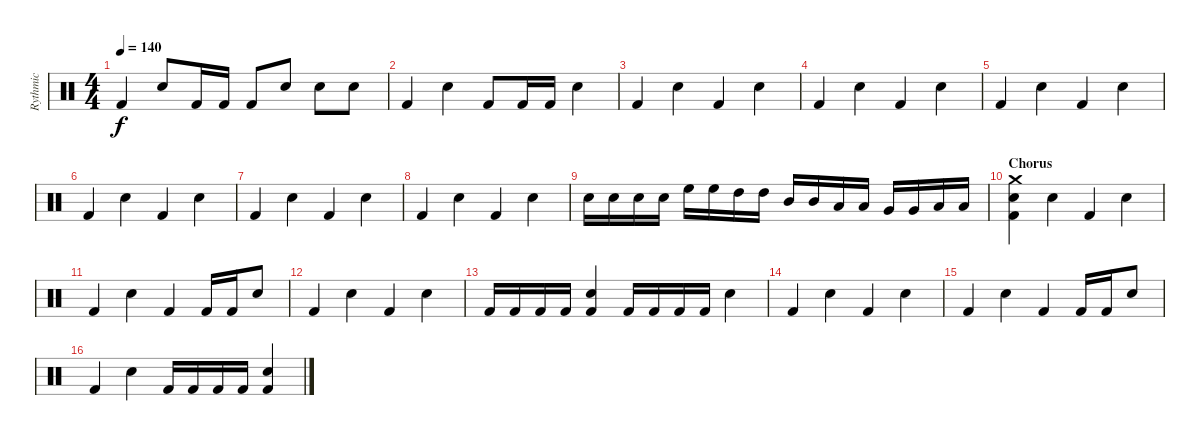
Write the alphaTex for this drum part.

\track ("Rythmic" "Rythmic") {instrument percussion}
\staff {score}
\articulation defaults
\ts (4 4)
\tempo 140
\clef neutral
\ks c "Kick (hit) 2".4{dy f} "Snare (hit) 2".8 "Kick (hit) 2".16 "Kick (hit) 2".16 "Kick (hit) 2".8 "Snare (hit) 2".8 "Snare (hit) 2".8 "Snare (hit) 2".8
|
"Kick (hit) 2".4 "Snare (hit) 2".4 "Kick (hit) 2".8 "Kick (hit) 2".16 "Kick (hit) 2".16 "Snare (hit) 2".4 |
"Kick (hit) 2".4 "Snare (hit) 2".4 "Kick (hit) 2".4 "Snare (hit) 2".4 |
"Kick (hit) 2".4 "Snare (hit) 2".4 "Kick (hit) 2".4 "Snare (hit) 2".4 |
"Kick (hit) 2".4 "Snare (hit) 2".4 "Kick (hit) 2".4 "Snare (hit) 2".4 |
"Kick (hit) 2".4 "Snare (hit) 2".4 "Kick (hit) 2".4 "Snare (hit) 2".4 |
"Kick (hit) 2".4 "Snare (hit) 2".4 "Kick (hit) 2".4 "Snare (hit) 2".4 |
"Kick (hit) 2".4 "Snare (hit) 2".4 "Kick (hit) 2".4 "Snare (hit) 2".4 |
"Snare (hit) 2".16 "Snare (hit) 2".16 "Snare (hit) 2".16 "Snare (hit) 2".16 "High Floor Tom (hit)".16 "High Floor Tom (hit)".16 "High Tom (hit)".16 "High Tom (hit)".16 "Mid Tom (hit)".16 "Mid Tom (hit)".16 "Low Tom (hit)".16 "Low Tom (hit)".16 "Very Low Tom (hit)".16 "Very Low Tom (hit)".16 "Low Floor Tom (hit)".16 "Low Floor Tom (hit)".16 |
\section ("" "Chorus")
("Crash medium (hit)" "Snare (hit) 2" "Kick (hit) 2").4 "Snare (hit) 2".4 "Kick (hit) 2".4 "Snare (hit) 2".4 |
"Kick (hit) 2".4 "Snare (hit) 2".4 "Kick (hit) 2".4 "Kick (hit) 2".16 "Kick (hit) 2".16 "Snare (hit) 2".8 |
"Kick (hit) 2".4 "Snare (hit) 2".4 "Kick (hit) 2".4 "Snare (hit) 2".4 |
"Kick (hit) 2".16 "Kick (hit) 2".16 "Kick (hit) 2".16 "Kick (hit) 2".16 ("Snare (hit) 2" "Kick (hit) 2").4 "Kick (hit) 2".16 "Kick (hit) 2".16 "Kick (hit) 2".16 "Kick (hit) 2".16 "Snare (hit) 2".4 |
"Kick (hit) 2".4 "Snare (hit) 2".4 "Kick (hit) 2".4 "Snare (hit) 2".4 |
"Kick (hit) 2".4 "Snare (hit) 2".4 "Kick (hit) 2".4 "Kick (hit) 2".16 "Kick (hit) 2".16 "Snare (hit) 2".8 |
"Kick (hit) 2".4 "Snare (hit) 2".4 "Kick (hit) 2".16 "Kick (hit) 2".16 "Kick (hit) 2".16 "Kick (hit) 2".16 ("Snare (hit) 2" "Kick (hit) 2").4
